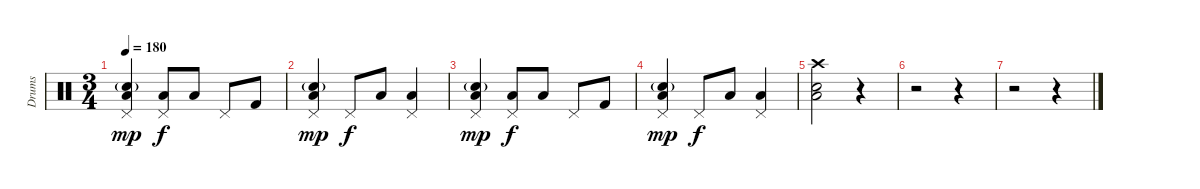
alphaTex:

\track ("Drums" "Drums") {instrument percussion}
\staff {score}
\articulation defaults
\ts (3 4)
\tempo 180
\clef neutral
\ks c
("Pedal Hi-Hat (hit)" "Snare (hit) 2"{g} "Low Tom (hit)").4{dy mp} ("Pedal Hi-Hat (hit)" "Low Tom (hit)").8{dy f} "Low Tom (hit)".8 "Pedal Hi-Hat (hit)".8 "Kick (hit) 2".8 |
("Snare (hit) 2"{g} "Pedal Hi-Hat (hit)" "Low Tom (hit)").4{dy mp} "Pedal Hi-Hat (hit)".8{dy f} "Low Tom (hit)".8 ("Pedal Hi-Hat (hit)" "Low Tom (hit)").4 |
("Pedal Hi-Hat (hit)" "Snare (hit) 2"{g} "Low Tom (hit)").4{dy mp} ("Pedal Hi-Hat (hit)" "Low Tom (hit)").8{dy f} "Low Tom (hit)".8 "Pedal Hi-Hat (hit)".8 "Kick (hit) 2".8 |
("Snare (hit) 2"{g} "Pedal Hi-Hat (hit)" "Low Tom (hit)").4{dy mp} "Pedal Hi-Hat (hit)".8{dy f} "Low Tom (hit)".8 ("Pedal Hi-Hat (hit)" "Low Tom (hit)").4 |
("Crash high (hit)" "Snare (hit) 2" "Low Tom (hit)").2 r.4 |
r.2 r.4 |
r.2 r.4
